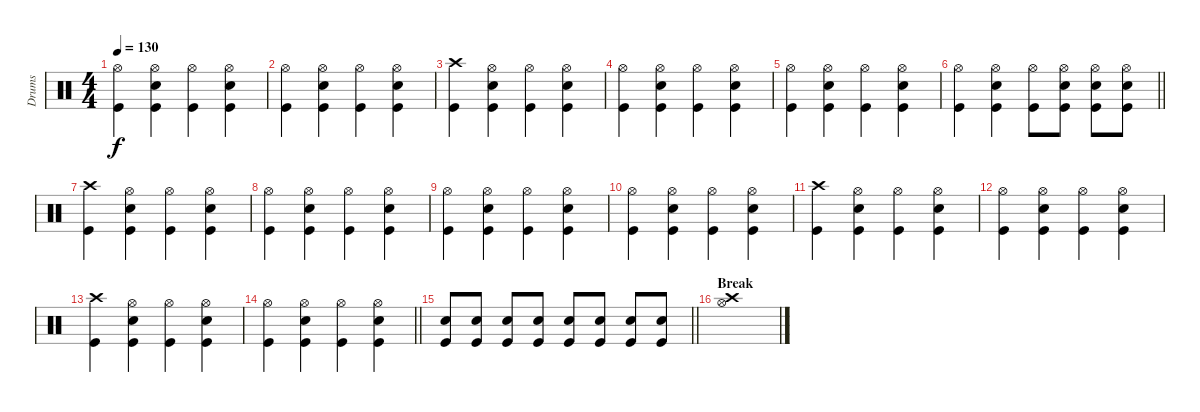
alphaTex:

\track ("Drums" "Drums") {instrument percussion}
\staff {score}
\articulation defaults
\ts (4 4)
\tempo 130
\clef neutral
\ks c
("Hi-Hat (open)" "Kick (hit)").4{dy f} ("Kick (hit)" "Snare (hit) 2" "Hi-Hat (open)").4 ("Hi-Hat (open)" "Kick (hit)").4 ("Hi-Hat (open)" "Snare (hit) 2" "Kick (hit)").4 |
("Hi-Hat (open)" "Kick (hit)").4 ("Kick (hit)" "Snare (hit) 2" "Hi-Hat (open)").4 ("Hi-Hat (open)" "Kick (hit)").4 ("Hi-Hat (open)" "Snare (hit) 2" "Kick (hit)").4 |
("Crash high (hit)" "Kick (hit)").4 ("Kick (hit)" "Snare (hit) 2" "Hi-Hat (open)").4 ("Hi-Hat (open)" "Kick (hit)").4 ("Hi-Hat (open)" "Snare (hit) 2" "Kick (hit)").4 |
("Hi-Hat (open)" "Kick (hit)").4 ("Kick (hit)" "Snare (hit) 2" "Hi-Hat (open)").4 ("Hi-Hat (open)" "Kick (hit)").4 ("Hi-Hat (open)" "Snare (hit) 2" "Kick (hit)").4 |
("Hi-Hat (open)" "Kick (hit)").4 ("Kick (hit)" "Snare (hit) 2" "Hi-Hat (open)").4 ("Hi-Hat (open)" "Kick (hit)").4 ("Hi-Hat (open)" "Snare (hit) 2" "Kick (hit)").4 |
\barLineRight lightlight
("Hi-Hat (open)" "Kick (hit)").4 ("Kick (hit)" "Snare (hit) 2" "Hi-Hat (open)").4 ("Hi-Hat (open)" "Kick (hit)").8 ("Hi-Hat (open)" "Snare (hit) 2" "Kick (hit)").8 ("Hi-Hat (open)" "Snare (hit) 2" "Kick (hit)").8 ("Hi-Hat (open)" "Snare (hit) 2" "Kick (hit)").8 |
("Crash high (hit)" "Kick (hit)").4 ("Kick (hit)" "Snare (hit) 2" "Hi-Hat (open)").4 ("Hi-Hat (open)" "Kick (hit)").4 ("Hi-Hat (open)" "Snare (hit) 2" "Kick (hit)").4 |
("Hi-Hat (open)" "Kick (hit)").4 ("Kick (hit)" "Snare (hit) 2" "Hi-Hat (open)").4 ("Hi-Hat (open)" "Kick (hit)").4 ("Hi-Hat (open)" "Snare (hit) 2" "Kick (hit)").4 |
("Hi-Hat (open)" "Kick (hit)").4 ("Kick (hit)" "Snare (hit) 2" "Hi-Hat (open)").4 ("Hi-Hat (open)" "Kick (hit)").4 ("Hi-Hat (open)" "Snare (hit) 2" "Kick (hit)").4 |
("Hi-Hat (open)" "Kick (hit)").4 ("Kick (hit)" "Snare (hit) 2" "Hi-Hat (open)").4 ("Hi-Hat (open)" "Kick (hit)").4 ("Hi-Hat (open)" "Snare (hit) 2" "Kick (hit)").4 |
("Crash high (hit)" "Kick (hit)").4 ("Kick (hit)" "Snare (hit) 2" "Hi-Hat (open)").4 ("Hi-Hat (open)" "Kick (hit)").4 ("Hi-Hat (open)" "Snare (hit) 2" "Kick (hit)").4 |
("Hi-Hat (open)" "Kick (hit)").4 ("Kick (hit)" "Snare (hit) 2" "Hi-Hat (open)").4 ("Hi-Hat (open)" "Kick (hit)").4 ("Hi-Hat (open)" "Snare (hit) 2" "Kick (hit)").4 |
("Crash high (hit)" "Kick (hit)").4 ("Kick (hit)" "Snare (hit) 2" "Hi-Hat (open)").4 ("Hi-Hat (open)" "Kick (hit)").4 ("Hi-Hat (open)" "Snare (hit) 2" "Kick (hit)").4 |
\barLineRight lightlight
("Hi-Hat (open)" "Kick (hit)").4 ("Kick (hit)" "Snare (hit) 2" "Hi-Hat (open)").4 ("Hi-Hat (open)" "Kick (hit)").4 ("Hi-Hat (open)" "Snare (hit) 2" "Kick (hit)").4 |
\barLineRight lightlight
("Kick (hit)" "Snare (hit) 2").8 ("Kick (hit)" "Snare (hit) 2").8 ("Kick (hit)" "Snare (hit) 2").8 ("Kick (hit)" "Snare (hit) 2").8 ("Kick (hit)" "Snare (hit) 2").8 ("Kick (hit)" "Snare (hit) 2").8 ("Kick (hit)" "Snare (hit) 2").8 ("Kick (hit)" "Snare (hit) 2").8 |
\section ("" "Break")
("Hi-Hat (open)" "Crash high (hit)").1
